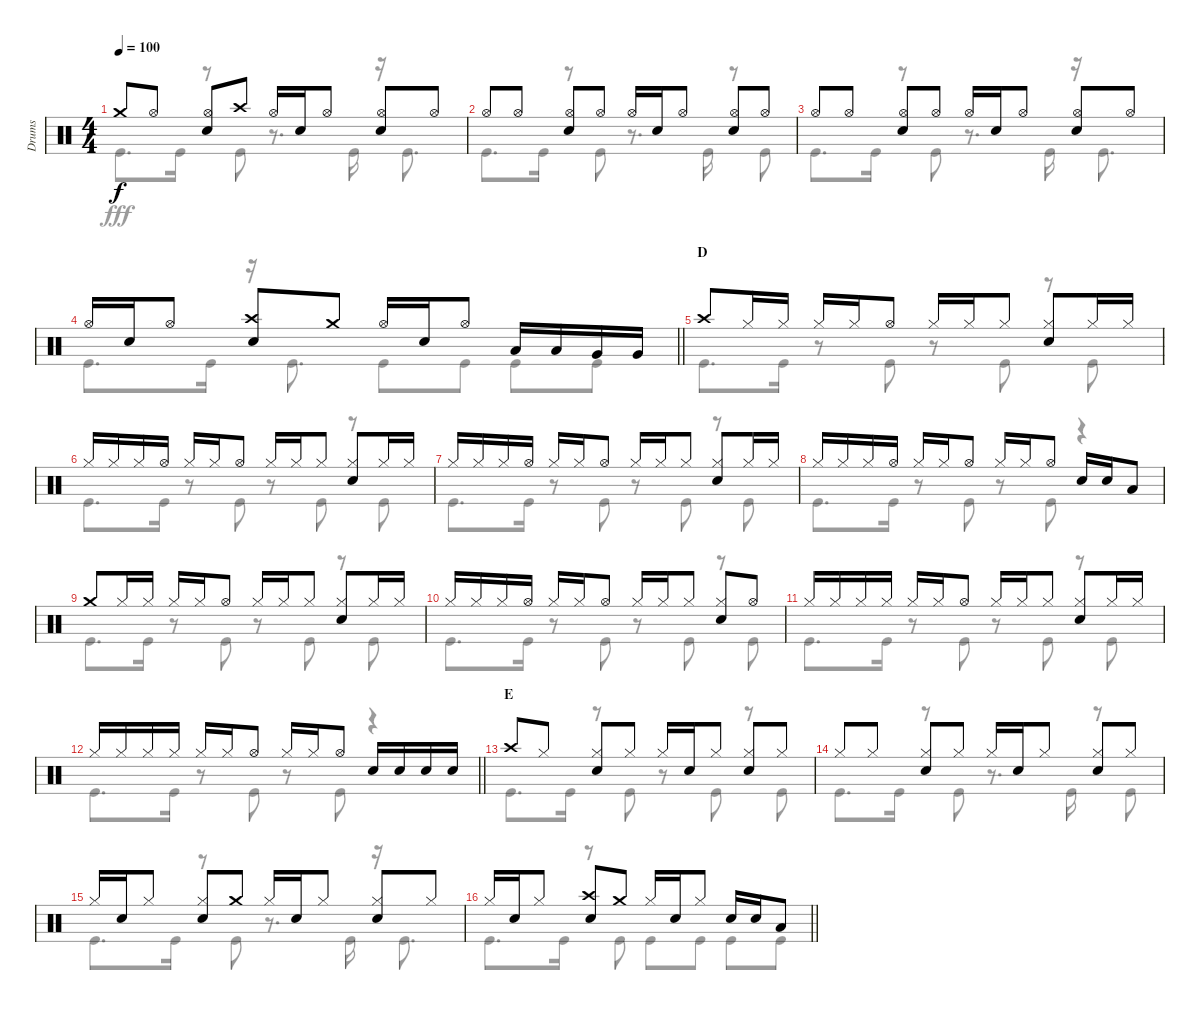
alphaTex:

\track ("Drums" "Drums") {instrument percussion}
\staff {score}
\articulation defaults
\voice
\ts (4 4)
\tempo 100
\clef neutral
\ks c "Crash medium (hit)".8{dy f} "Hi-Hat (open)".8
("Hi-Hat (open)" "Snare (hit) 2").8 "Crash high (hit)".8 "Hi-Hat (open)".16 "Snare (hit) 2".16 "Hi-Hat (open)".8 ("Hi-Hat (open)" "Snare (hit) 2").8 "Hi-Hat (open)".8 |
"Hi-Hat (open)".8 "Hi-Hat (open)".8 ("Hi-Hat (open)" "Snare (hit) 2").8 "Hi-Hat (open)".8 "Hi-Hat (open)".16 "Snare (hit) 2".16 "Hi-Hat (open)".8 ("Hi-Hat (open)" "Snare (hit) 2").8 "Hi-Hat (open)".8 |
"Hi-Hat (open)".8 "Hi-Hat (open)".8 ("Hi-Hat (open)" "Snare (hit) 2").8 "Hi-Hat (open)".8 "Hi-Hat (open)".16 "Snare (hit) 2".16 "Hi-Hat (open)".8 ("Hi-Hat (open)" "Snare (hit) 2").8 "Hi-Hat (open)".8 |
\barLineRight lightlight "Hi-Hat (open)".16 "Snare (hit) 2".16 "Hi-Hat (open)".8
("Crash high (hit)" "Snare (hit) 2").8 "Crash medium (hit)".8 "Hi-Hat (open)".16 "Snare (hit) 2".16 "Hi-Hat (open)".8 "Low Tom (hit)".16 "Low Tom (hit)".16 "Very Low Tom (hit)".16 "Very Low Tom (hit)".16 |
\section ("" "D")
"Crash high (hit)".8 "Hi-Hat (closed)".16 "Hi-Hat (closed)".16 "Hi-Hat (closed)".16 "Hi-Hat (closed)".16 "Hi-Hat (open)".8 "Hi-Hat (closed)".16 "Hi-Hat (closed)".16 "Hi-Hat (closed)".8 ("Hi-Hat (closed)" "Snare (hit) 2").8 "Hi-Hat (closed)".16 "Hi-Hat (closed)".16 |
"Hi-Hat (closed)".16 "Hi-Hat (closed)".16 "Hi-Hat (closed)".16 "Hi-Hat (open)".16 "Hi-Hat (closed)".16 "Hi-Hat (closed)".16 "Hi-Hat (open)".8 "Hi-Hat (closed)".16 "Hi-Hat (closed)".16 "Hi-Hat (closed)".8 ("Hi-Hat (closed)" "Snare (hit) 2").8 "Hi-Hat (closed)".16 "Hi-Hat (closed)".16 |
"Hi-Hat (closed)".16 "Hi-Hat (closed)".16 "Hi-Hat (closed)".16 "Hi-Hat (open)".16 "Hi-Hat (closed)".16 "Hi-Hat (closed)".16 "Hi-Hat (open)".8 "Hi-Hat (closed)".16 "Hi-Hat (closed)".16 "Hi-Hat (closed)".8 ("Hi-Hat (closed)" "Snare (hit) 2").8 "Hi-Hat (closed)".16 "Hi-Hat (closed)".16 |
"Hi-Hat (closed)".16 "Hi-Hat (closed)".16 "Hi-Hat (closed)".16 "Hi-Hat (open)".16 "Hi-Hat (closed)".16 "Hi-Hat (closed)".16 "Hi-Hat (open)".8 "Hi-Hat (closed)".16 "Hi-Hat (closed)".16 "Hi-Hat (open)".8 "Snare (hit) 2".16 "Snare (hit) 2".16 "Low Tom (hit)".8 |
"Crash medium (hit)".8 "Hi-Hat (closed)".16 "Hi-Hat (closed)".16 "Hi-Hat (closed)".16 "Hi-Hat (closed)".16 "Hi-Hat (open)".8 "Hi-Hat (closed)".16 "Hi-Hat (closed)".16 "Hi-Hat (closed)".8 ("Hi-Hat (closed)" "Snare (hit) 2").8 "Hi-Hat (closed)".16 "Hi-Hat (closed)".16 |
"Hi-Hat (closed)".16 "Hi-Hat (closed)".16 "Hi-Hat (closed)".16 "Hi-Hat (open)".16 "Hi-Hat (closed)".16 "Hi-Hat (closed)".16 "Hi-Hat (open)".8 "Hi-Hat (closed)".16 "Hi-Hat (closed)".16 "Hi-Hat (closed)".8 ("Hi-Hat (closed)" "Snare (hit) 2").8 "Hi-Hat (open)".8 |
"Hi-Hat (closed)".16 "Hi-Hat (closed)".16 "Hi-Hat (closed)".16 "Hi-Hat (closed)".16 "Hi-Hat (closed)".16 "Hi-Hat (closed)".16 "Hi-Hat (open)".8 "Hi-Hat (closed)".16 "Hi-Hat (closed)".16 "Hi-Hat (closed)".8 ("Hi-Hat (closed)" "Snare (hit) 2").8 "Hi-Hat (closed)".16 "Hi-Hat (closed)".16 |
\barLineRight lightlight "Hi-Hat (closed)".16 "Hi-Hat (closed)".16 "Hi-Hat (closed)".16 "Hi-Hat (closed)".16 "Hi-Hat (closed)".16 "Hi-Hat (closed)".16 "Hi-Hat (open)".8 "Hi-Hat (closed)".16 "Hi-Hat (closed)".16 "Hi-Hat (open)".8 "Snare (hit) 2".16 "Snare (hit) 2".16 "Snare (hit) 2".16 "Snare (hit) 2".16
|
\section ("" "E")
"Crash high (hit)".8 "Hi-Hat (closed)".8 ("Hi-Hat (closed)" "Snare (hit) 2").8 "Hi-Hat (closed)".8 "Hi-Hat (closed)".16 "Snare (hit) 2".16 "Hi-Hat (closed)".8 ("Hi-Hat (closed)" "Snare (hit) 2").8 "Hi-Hat (closed)".8 |
"Hi-Hat (closed)".8 "Hi-Hat (closed)".8 ("Hi-Hat (closed)" "Snare (hit) 2").8 "Hi-Hat (closed)".8 "Hi-Hat (closed)".16 "Snare (hit) 2".16 "Hi-Hat (closed)".8 ("Hi-Hat (closed)" "Snare (hit) 2").8 "Hi-Hat (closed)".8 |
"Hi-Hat (closed)".16 "Snare (hit) 2".16 "Hi-Hat (closed)".8 ("Hi-Hat (closed)" "Snare (hit) 2").8 "Crash medium (hit)".8 "Hi-Hat (closed)".16 "Snare (hit) 2".16 "Hi-Hat (closed)".8 ("Hi-Hat (closed)" "Snare (hit) 2").8 "Hi-Hat (closed)".8 |
\barLineRight lightlight "Hi-Hat (closed)".16 "Snare (hit) 2".16 "Hi-Hat (closed)".8
("Crash high (hit)" "Snare (hit) 2").8 "Crash medium (hit)".8 "Hi-Hat (closed)".16 "Snare (hit) 2".16 "Hi-Hat (closed)".8 "Snare (hit) 2".16 "Snare (hit) 2".16 "Low Tom (hit)".8
\voice
\clef neutral
\ottava regular
\simile none
\ks c "Kick (hit)".8{d dy fff} "Kick (hit)".16
r.8 "Kick (hit)".8 r.8{d} "Kick (hit)".16 r.16 "Kick (hit)".8{d} |
"Kick (hit)".8{d} "Kick (hit)".16 r.8 "Kick (hit)".8 r.8{d} "Kick (hit)".16 r.8 "Kick (hit)".8 |
"Kick (hit)".8{d} "Kick (hit)".16 r.8 "Kick (hit)".8 r.8{d} "Kick (hit)".16 r.16 "Kick (hit)".8{d} |
\barLineRight lightlight "Kick (hit)".8{d} "Kick (hit)".16
r.16 "Kick (hit)".8{d} "Kick (hit)".8 "Kick (hit)".8 "Kick (hit)".8 "Kick (hit)".8 |
"Kick (hit)".8{d} "Kick (hit)".16 r.8 "Kick (hit)".8 r.8 "Kick (hit)".8 r.8 "Kick (hit)".8 |
"Kick (hit)".8{d} "Kick (hit)".16 r.8 "Kick (hit)".8 r.8 "Kick (hit)".8 r.8 "Kick (hit)".8 |
"Kick (hit)".8{d} "Kick (hit)".16 r.8 "Kick (hit)".8 r.8 "Kick (hit)".8 r.8 "Kick (hit)".8 |
"Kick (hit)".8{d} "Kick (hit)".16 r.8 "Kick (hit)".8 r.8 "Kick (hit)".8 r.4 |
"Kick (hit)".8{d} "Kick (hit)".16 r.8 "Kick (hit)".8 r.8 "Kick (hit)".8 r.8 "Kick (hit)".8 |
"Kick (hit)".8{d} "Kick (hit)".16 r.8 "Kick (hit)".8 r.8 "Kick (hit)".8 r.8 "Kick (hit)".8 |
"Kick (hit)".8{d} "Kick (hit)".16 r.8 "Kick (hit)".8 r.8 "Kick (hit)".8 r.8 "Kick (hit)".8 |
\barLineRight lightlight "Kick (hit)".8{d} "Kick (hit)".16
r.8 "Kick (hit)".8 r.8 "Kick (hit)".8 r.4 |
"Kick (hit)".8{d} "Kick (hit)".16 r.8 "Kick (hit)".8 r.8 "Kick (hit)".8 r.8 "Kick (hit)".8 |
"Kick (hit)".8{d} "Kick (hit)".16 r.8 "Kick (hit)".8 r.8{d} "Kick (hit)".16 r.8 "Kick (hit)".8 |
"Kick (hit)".8{d} "Kick (hit)".16 r.8 "Kick (hit)".8 r.8{d} "Kick (hit)".16 r.16 "Kick (hit)".8{d} |
\barLineRight lightlight "Kick (hit)".8{d} "Kick (hit)".16
r.8 "Kick (hit)".8 "Kick (hit)".8 "Kick (hit)".8 "Kick (hit)".8 "Kick (hit)".8
